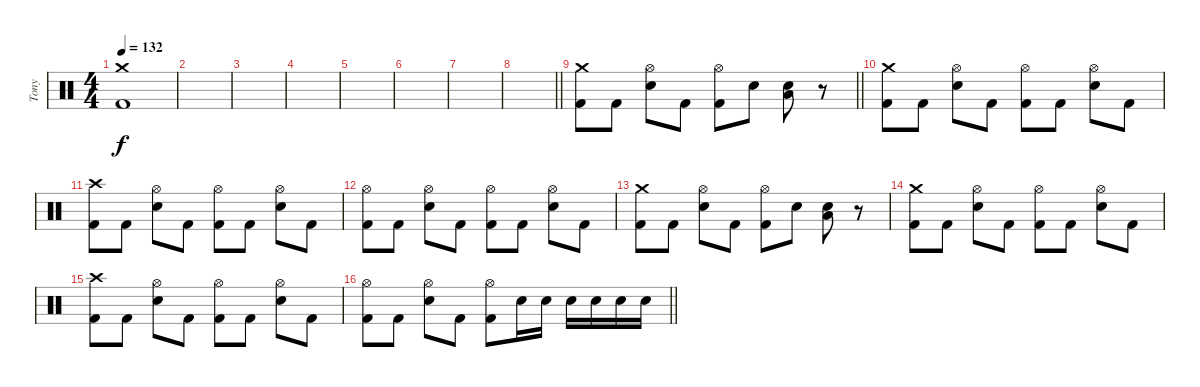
\track ("Tony" "Tony") {instrument percussion}
\staff {score}
\articulation defaults
\ts (4 4)
\tempo 132
\clef neutral
\ks c
("Crash medium (hit)" "Kick (hit) 2").1{dy f} |
|
|
|
|
|
|
\barLineRight lightlight
|
\section ("" "")
\barLineRight lightlight
("Crash medium (hit)" "Kick (hit) 2").8 "Kick (hit) 2".8 ("Hi-Hat (open)" "Electric Snare (hit)").8 "Kick (hit) 2".8 ("Hi-Hat (open)" "Kick (hit) 2").8 "Electric Snare (hit)".8 ("Low Floor Tom (hit)" "Electric Snare (hit)").8 r.8 |
\section ("" "")
("Crash medium (hit)" "Kick (hit) 2").8 "Kick (hit) 2".8 ("Hi-Hat (open)" "Electric Snare (hit)").8 "Kick (hit) 2".8 ("Hi-Hat (open)" "Kick (hit) 2").8 "Kick (hit) 2".8 ("Hi-Hat (open)" "Electric Snare (hit)").8 "Kick (hit) 2".8 |
("Crash high (hit)" "Kick (hit) 2").8 "Kick (hit) 2".8 ("Hi-Hat (open)" "Electric Snare (hit)").8 "Kick (hit) 2".8 ("Hi-Hat (open)" "Kick (hit) 2").8 "Kick (hit) 2".8 ("Hi-Hat (open)" "Electric Snare (hit)").8 "Kick (hit) 2".8 |
("Hi-Hat (open)" "Kick (hit) 2").8 "Kick (hit) 2".8 ("Hi-Hat (open)" "Electric Snare (hit)").8 "Kick (hit) 2".8 ("Hi-Hat (open)" "Kick (hit) 2").8 "Kick (hit) 2".8 ("Hi-Hat (open)" "Electric Snare (hit)").8 "Kick (hit) 2".8 |
("Crash medium (hit)" "Kick (hit) 2").8 "Kick (hit) 2".8 ("Hi-Hat (open)" "Electric Snare (hit)").8 "Kick (hit) 2".8 ("Hi-Hat (open)" "Kick (hit) 2").8 "Electric Snare (hit)".8 ("Low Floor Tom (hit)" "Electric Snare (hit)").8 r.8 |
("Crash medium (hit)" "Kick (hit) 2").8 "Kick (hit) 2".8 ("Hi-Hat (open)" "Electric Snare (hit)").8 "Kick (hit) 2".8 ("Hi-Hat (open)" "Kick (hit) 2").8 "Kick (hit) 2".8 ("Hi-Hat (open)" "Electric Snare (hit)").8 "Kick (hit) 2".8 |
("Crash high (hit)" "Kick (hit) 2").8 "Kick (hit) 2".8 ("Hi-Hat (open)" "Electric Snare (hit)").8 "Kick (hit) 2".8 ("Hi-Hat (open)" "Kick (hit) 2").8 "Kick (hit) 2".8 ("Hi-Hat (open)" "Electric Snare (hit)").8 "Kick (hit) 2".8 |
\barLineRight lightlight
("Hi-Hat (open)" "Kick (hit) 2").8 "Kick (hit) 2".8 ("Hi-Hat (open)" "Electric Snare (hit)").8 "Kick (hit) 2".8 ("Hi-Hat (open)" "Kick (hit) 2").8 "Electric Snare (hit)".16 "Electric Snare (hit)".16 "Electric Snare (hit)".16 "Electric Snare (hit)".16 "Electric Snare (hit)".16 "Electric Snare (hit)".16
